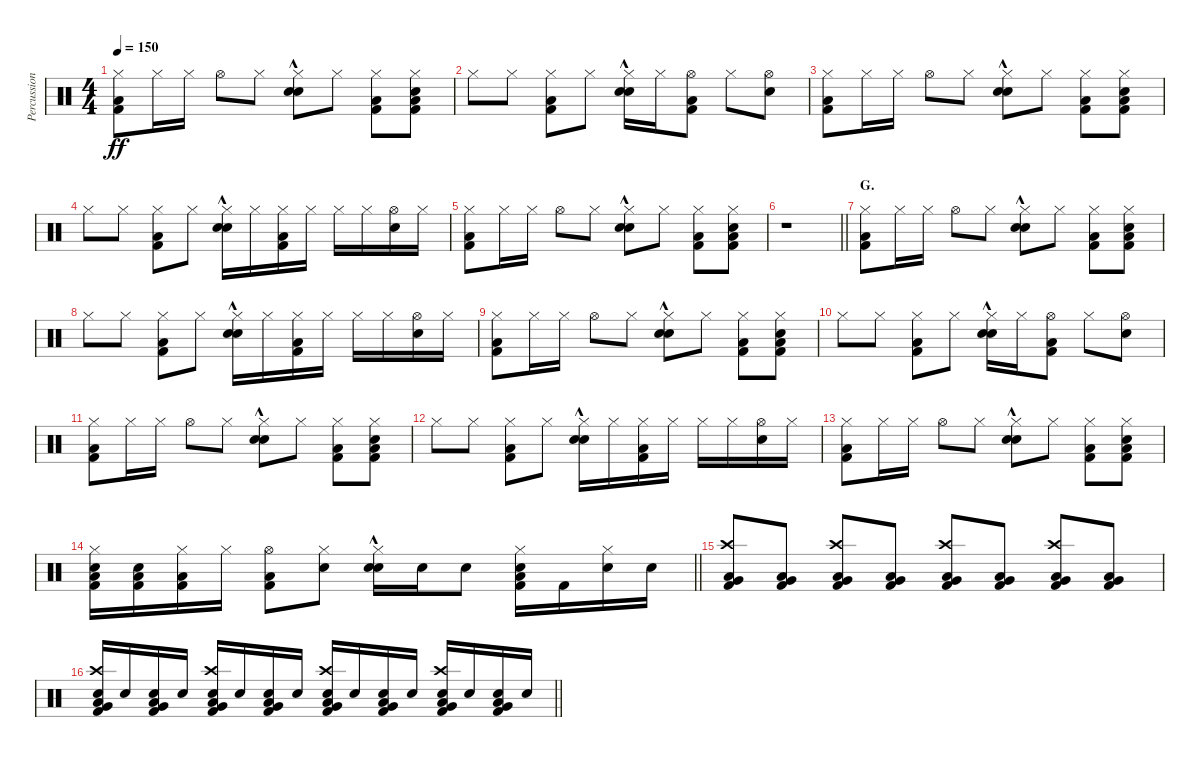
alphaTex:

\track ("Percussion" "Percussion") {instrument percussion}
\staff {score}
\articulation defaults
\ts (4 4)
\tempo 150
\clef neutral
\ks c
("Hi-Hat (closed)" "Low Floor Tom (hit)" "Kick (hit) 2").8{dy ff} "Hi-Hat (closed)".16 "Hi-Hat (closed)".16 "Hi-Hat (open)".8 "Hi-Hat (closed)".8 ("Hand Clap (hit)"{hac} "Hi-Hat (closed)" "Electric Snare (hit)").8 "Hi-Hat (closed)".8 ("Hi-Hat (closed)" "Low Floor Tom (hit)" "Kick (hit) 2").8 ("Hi-Hat (closed)" "Electric Snare (hit)" "Low Floor Tom (hit)" "Kick (hit) 2").8 |
"Hi-Hat (closed)".8 "Hi-Hat (closed)".8 ("Hi-Hat (closed)" "Low Floor Tom (hit)" "Kick (hit) 2").8 "Hi-Hat (closed)".8 ("Hand Clap (hit)"{hac} "Hi-Hat (closed)" "Electric Snare (hit)").16 "Hi-Hat (closed)".16 ("Hi-Hat (open)" "Low Floor Tom (hit)" "Kick (hit) 2").8 "Hi-Hat (closed)".8 ("Hi-Hat (open)" "Electric Snare (hit)").8 |
("Hi-Hat (closed)" "Low Floor Tom (hit)" "Kick (hit) 2").8 "Hi-Hat (closed)".16 "Hi-Hat (closed)".16 "Hi-Hat (open)".8 "Hi-Hat (closed)".8 ("Hand Clap (hit)"{hac} "Hi-Hat (closed)" "Electric Snare (hit)").8 "Hi-Hat (closed)".8 ("Hi-Hat (closed)" "Low Floor Tom (hit)" "Kick (hit) 2").8 ("Hi-Hat (closed)" "Electric Snare (hit)" "Low Floor Tom (hit)" "Kick (hit) 2").8 |
"Hi-Hat (closed)".8 "Hi-Hat (closed)".8 ("Hi-Hat (closed)" "Low Floor Tom (hit)" "Kick (hit) 2").8 "Hi-Hat (closed)".8 ("Hand Clap (hit)"{hac} "Hi-Hat (closed)" "Electric Snare (hit)").16 "Hi-Hat (closed)".16 ("Hi-Hat (closed)" "Low Floor Tom (hit)" "Kick (hit) 2").16 "Hi-Hat (closed)".16 "Hi-Hat (closed)".16 "Hi-Hat (closed)".16 ("Hi-Hat (open)" "Electric Snare (hit)").16 "Hi-Hat (closed)".16 |
("Hi-Hat (closed)" "Low Floor Tom (hit)" "Kick (hit) 2").8 "Hi-Hat (closed)".16 "Hi-Hat (closed)".16 "Hi-Hat (open)".8 "Hi-Hat (closed)".8 ("Hand Clap (hit)"{hac} "Hi-Hat (closed)" "Electric Snare (hit)").8 "Hi-Hat (closed)".8 ("Hi-Hat (closed)" "Low Floor Tom (hit)" "Kick (hit) 2").8 ("Hi-Hat (closed)" "Electric Snare (hit)" "Low Floor Tom (hit)" "Kick (hit) 2").8 |
\barLineRight lightlight
r.1 |
\section ("" "G.")
("Hi-Hat (closed)" "Low Floor Tom (hit)" "Kick (hit) 2").8 "Hi-Hat (closed)".16 "Hi-Hat (closed)".16 "Hi-Hat (open)".8 "Hi-Hat (closed)".8 ("Hand Clap (hit)"{hac} "Hi-Hat (closed)" "Electric Snare (hit)").8 "Hi-Hat (closed)".8 ("Hi-Hat (closed)" "Low Floor Tom (hit)" "Kick (hit) 2").8 ("Hi-Hat (closed)" "Electric Snare (hit)" "Low Floor Tom (hit)" "Kick (hit) 2").8 |
"Hi-Hat (closed)".8 "Hi-Hat (closed)".8 ("Hi-Hat (closed)" "Low Floor Tom (hit)" "Kick (hit) 2").8 "Hi-Hat (closed)".8 ("Hand Clap (hit)"{hac} "Hi-Hat (closed)" "Electric Snare (hit)").16 "Hi-Hat (closed)".16 ("Hi-Hat (closed)" "Low Floor Tom (hit)" "Kick (hit) 2").16 "Hi-Hat (closed)".16 "Hi-Hat (closed)".16 "Hi-Hat (closed)".16 ("Hi-Hat (open)" "Electric Snare (hit)").16 "Hi-Hat (closed)".16 |
("Hi-Hat (closed)" "Low Floor Tom (hit)" "Kick (hit) 2").8 "Hi-Hat (closed)".16 "Hi-Hat (closed)".16 "Hi-Hat (open)".8 "Hi-Hat (closed)".8 ("Hand Clap (hit)"{hac} "Hi-Hat (closed)" "Electric Snare (hit)").8 "Hi-Hat (closed)".8 ("Hi-Hat (closed)" "Low Floor Tom (hit)" "Kick (hit) 2").8 ("Hi-Hat (closed)" "Electric Snare (hit)" "Low Floor Tom (hit)" "Kick (hit) 2").8 |
"Hi-Hat (closed)".8 "Hi-Hat (closed)".8 ("Hi-Hat (closed)" "Low Floor Tom (hit)" "Kick (hit) 2").8 "Hi-Hat (closed)".8 ("Hand Clap (hit)"{hac} "Hi-Hat (closed)" "Electric Snare (hit)").16 "Hi-Hat (closed)".16 ("Hi-Hat (open)" "Low Floor Tom (hit)" "Kick (hit) 2").8 "Hi-Hat (closed)".8 ("Hi-Hat (open)" "Electric Snare (hit)").8 |
("Hi-Hat (closed)" "Low Floor Tom (hit)" "Kick (hit) 2").8 "Hi-Hat (closed)".16 "Hi-Hat (closed)".16 "Hi-Hat (open)".8 "Hi-Hat (closed)".8 ("Hand Clap (hit)"{hac} "Hi-Hat (closed)" "Electric Snare (hit)").8 "Hi-Hat (closed)".8 ("Hi-Hat (closed)" "Low Floor Tom (hit)" "Kick (hit) 2").8 ("Hi-Hat (closed)" "Electric Snare (hit)" "Low Floor Tom (hit)" "Kick (hit) 2").8 |
"Hi-Hat (closed)".8 "Hi-Hat (closed)".8 ("Hi-Hat (closed)" "Low Floor Tom (hit)" "Kick (hit) 2").8 "Hi-Hat (closed)".8 ("Hand Clap (hit)"{hac} "Hi-Hat (closed)" "Electric Snare (hit)").16 "Hi-Hat (closed)".16 ("Hi-Hat (closed)" "Low Floor Tom (hit)" "Kick (hit) 2").16 "Hi-Hat (closed)".16 "Hi-Hat (closed)".16 "Hi-Hat (closed)".16 ("Hi-Hat (open)" "Electric Snare (hit)").16 "Hi-Hat (closed)".16 |
("Hi-Hat (closed)" "Low Floor Tom (hit)" "Kick (hit) 2").8 "Hi-Hat (closed)".16 "Hi-Hat (closed)".16 "Hi-Hat (open)".8 "Hi-Hat (closed)".8 ("Hand Clap (hit)"{hac} "Hi-Hat (closed)" "Electric Snare (hit)").8 "Hi-Hat (closed)".8 ("Hi-Hat (closed)" "Low Floor Tom (hit)" "Kick (hit) 2").8 ("Hi-Hat (closed)" "Electric Snare (hit)" "Low Floor Tom (hit)" "Kick (hit) 2").8 |
\barLineRight lightlight
("Hi-Hat (closed)" "Electric Snare (hit)" "Low Floor Tom (hit)" "Kick (hit) 2").16 ("Electric Snare (hit)" "Low Floor Tom (hit)" "Kick (hit) 2").16 ("Hi-Hat (closed)" "Low Floor Tom (hit)" "Kick (hit) 2").16 "Hi-Hat (closed)".16 ("Hi-Hat (open)" "Low Floor Tom (hit)" "Kick (hit) 2").8 ("Hi-Hat (closed)" "Electric Snare (hit)").8 ("Hand Clap (hit)"{hac} "Hi-Hat (closed)" "Electric Snare (hit)").16 "Electric Snare (hit)".16 "Electric Snare (hit)".8 ("Hi-Hat (closed)" "Electric Snare (hit)" "Low Floor Tom (hit)" "Kick (hit) 2").16 "Kick (hit) 2".16 ("Hi-Hat (closed)" "Electric Snare (hit)").16 "Electric Snare (hit)".16 |
\section ("" "")
("Crash high (hit)" "Very Low Tom (hit)" "Low Floor Tom (hit)" "Kick (hit) 2").8 ("Very Low Tom (hit)" "Low Floor Tom (hit)" "Kick (hit) 2").8 ("Crash high (hit)" "Very Low Tom (hit)" "Low Floor Tom (hit)" "Kick (hit) 2").8 ("Very Low Tom (hit)" "Low Floor Tom (hit)" "Kick (hit) 2").8 ("Crash high (hit)" "Very Low Tom (hit)" "Low Floor Tom (hit)" "Kick (hit) 2").8 ("Very Low Tom (hit)" "Low Floor Tom (hit)" "Kick (hit) 2").8 ("Crash high (hit)" "Very Low Tom (hit)" "Low Floor Tom (hit)" "Kick (hit) 2").8 ("Very Low Tom (hit)" "Low Floor Tom (hit)" "Kick (hit) 2").8 |
\barLineRight lightlight
("Crash high (hit)" "Very Low Tom (hit)" "Electric Snare (hit)" "Low Floor Tom (hit)" "Kick (hit) 2").16 "Electric Snare (hit)".16 ("Very Low Tom (hit)" "Electric Snare (hit)" "Low Floor Tom (hit)" "Kick (hit) 2").16 "Electric Snare (hit)".16 ("Crash high (hit)" "Very Low Tom (hit)" "Electric Snare (hit)" "Low Floor Tom (hit)" "Kick (hit) 2").16 "Electric Snare (hit)".16 ("Very Low Tom (hit)" "Electric Snare (hit)" "Low Floor Tom (hit)" "Kick (hit) 2").16 "Electric Snare (hit)".16 ("Crash high (hit)" "Very Low Tom (hit)" "Electric Snare (hit)" "Low Floor Tom (hit)" "Kick (hit) 2").16 "Electric Snare (hit)".16 ("Very Low Tom (hit)" "Electric Snare (hit)" "Low Floor Tom (hit)" "Kick (hit) 2").16 "Electric Snare (hit)".16 ("Crash high (hit)" "Very Low Tom (hit)" "Electric Snare (hit)" "Low Floor Tom (hit)" "Kick (hit) 2").16 "Electric Snare (hit)".16 ("Very Low Tom (hit)" "Electric Snare (hit)" "Low Floor Tom (hit)" "Kick (hit) 2").16 "Electric Snare (hit)".16
